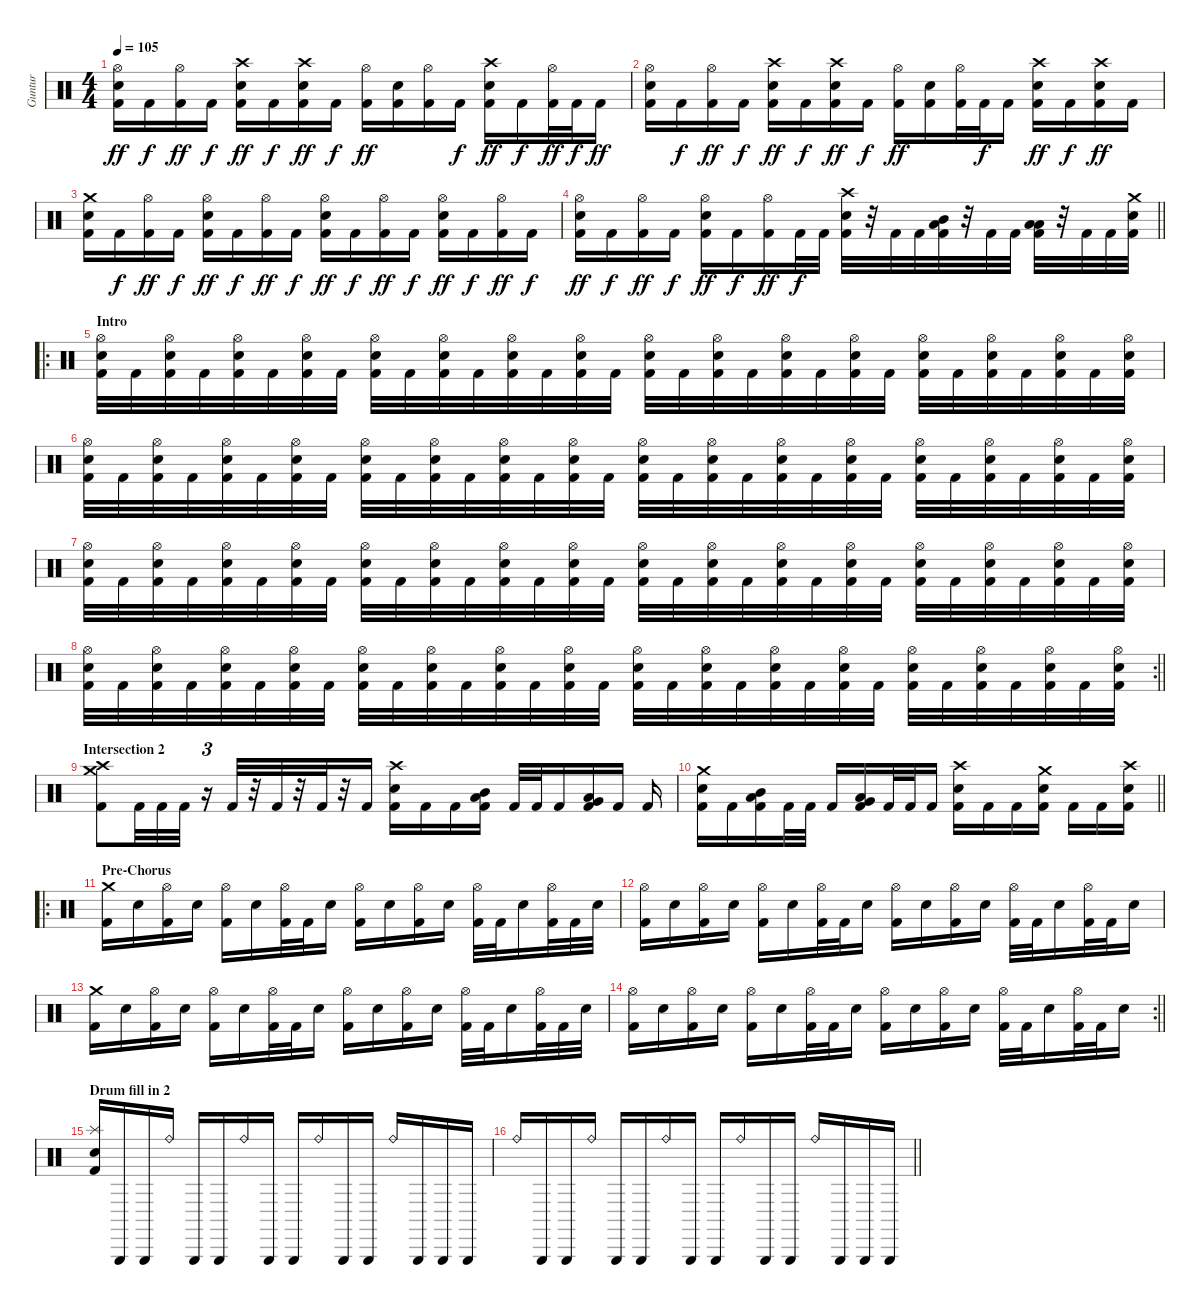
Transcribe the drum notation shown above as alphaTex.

\track ("Guntur" "Guntur") {instrument percussion}
\staff {score}
\articulation defaults
\ts (4 4)
\tempo 105
\clef neutral
\ks c
("Hi-Hat (open)" "Electric Snare (hit)" "Kick (hit) 2").16{dy ff} "Kick (hit) 2".16{dy f} ("Hi-Hat (open)" "Kick (hit) 2").16{dy ff} "Kick (hit) 2".16{dy f} ("Crash high (hit)" "Electric Snare (hit)" "Kick (hit) 2").16{dy ff} "Kick (hit) 2".16{dy f} ("Crash high (hit)" "Electric Snare (hit)" "Kick (hit) 2").16{dy ff} "Kick (hit) 2".16{dy f} ("Hi-Hat (open)" "Kick (hit) 2").16{dy ff} ("Electric Snare (hit)" "Kick (hit) 2").16 ("Hi-Hat (open)" "Kick (hit) 2").16 "Kick (hit) 2".16{dy f} ("Crash high (hit)" "Electric Snare (hit)" "Kick (hit) 2").16{dy ff} "Kick (hit) 2".16{dy f} ("Hi-Hat (open)" "Kick (hit) 2").32{dy ff} "Kick (hit) 2".32{dy f} "Kick (hit) 2".16{dy ff} |
("Hi-Hat (open)" "Electric Snare (hit)" "Kick (hit) 2").16 "Kick (hit) 2".16{dy f} ("Hi-Hat (open)" "Kick (hit) 2").16{dy ff} "Kick (hit) 2".16{dy f} ("Crash high (hit)" "Electric Snare (hit)" "Kick (hit) 2").16{dy ff} "Kick (hit) 2".16{dy f} ("Crash high (hit)" "Electric Snare (hit)" "Kick (hit) 2").16{dy ff} "Kick (hit) 2".16{dy f} ("Hi-Hat (open)" "Kick (hit) 2").16{dy ff} ("Electric Snare (hit)" "Kick (hit) 2").16 ("Hi-Hat (open)" "Kick (hit) 2").32 "Kick (hit) 2".32{dy f} "Kick (hit) 2".16 ("Crash high (hit)" "Electric Snare (hit)" "Kick (hit) 2").16{dy ff} "Kick (hit) 2".16{dy f} ("Crash high (hit)" "Electric Snare (hit)" "Kick (hit) 2").16{dy ff} "Kick (hit) 2".16 |
("Crash medium (hit)" "Electric Snare (hit)" "Kick (hit) 2").16 "Kick (hit) 2".16{dy f} ("Hi-Hat (open)" "Kick (hit) 2").16{dy ff} "Kick (hit) 2".16{dy f} ("Hi-Hat (open)" "Electric Snare (hit)" "Kick (hit) 2").16{dy ff} "Kick (hit) 2".16{dy f} ("Hi-Hat (open)" "Kick (hit) 2").16{dy ff} "Kick (hit) 2".16{dy f} ("Hi-Hat (open)" "Electric Snare (hit)" "Kick (hit) 2").16{dy ff} "Kick (hit) 2".16{dy f} ("Hi-Hat (open)" "Kick (hit) 2").16{dy ff} "Kick (hit) 2".16{dy f} ("Hi-Hat (open)" "Electric Snare (hit)" "Kick (hit) 2").16{dy ff} "Kick (hit) 2".16{dy f} ("Hi-Hat (open)" "Kick (hit) 2").16{dy ff} "Kick (hit) 2".16{dy f} |
\barLineRight lightlight
("Hi-Hat (open)" "Electric Snare (hit)" "Kick (hit) 2").16{dy ff} "Kick (hit) 2".16{dy f} ("Hi-Hat (open)" "Kick (hit) 2").16{dy ff} "Kick (hit) 2".16{dy f} ("Hi-Hat (open)" "Electric Snare (hit)" "Kick (hit) 2").16{dy ff} "Kick (hit) 2".16{dy f} ("Hi-Hat (open)" "Kick (hit) 2").16{dy ff} "Kick (hit) 2".32{dy f} "Kick (hit) 2".32 ("Crash high (hit)" "Electric Snare (hit)" "Kick (hit) 2").32 r.32 "Kick (hit) 2".32 "Kick (hit) 2".32 ("Mid Tom (hit)" "Low Tom (hit)" "Kick (hit) 2").32 r.32 "Kick (hit) 2".32 "Kick (hit) 2".32 ("Low Tom (hit)" "Low Floor Tom (hit)" "Kick (hit) 2").32 r.32 "Kick (hit) 2".32 "Kick (hit) 2".32 ("Crash medium (hit)" "Electric Snare (hit)" "Kick (hit) 2").32 |
\ro
\section ("" "Intro")
("Hi-Hat (open)" "Electric Snare (hit)" "Kick (hit) 2").32 "Kick (hit) 2".32 ("Hi-Hat (open)" "Electric Snare (hit)" "Kick (hit) 2").32 "Kick (hit) 2".32 ("Hi-Hat (open)" "Electric Snare (hit)" "Kick (hit) 2").32 "Kick (hit) 2".32 ("Hi-Hat (open)" "Electric Snare (hit)" "Kick (hit) 2").32 "Kick (hit) 2".32 ("Hi-Hat (open)" "Electric Snare (hit)" "Kick (hit) 2").32 "Kick (hit) 2".32 ("Hi-Hat (open)" "Electric Snare (hit)" "Kick (hit) 2").32 "Kick (hit) 2".32 ("Hi-Hat (open)" "Electric Snare (hit)" "Kick (hit) 2").32 "Kick (hit) 2".32 ("Hi-Hat (open)" "Electric Snare (hit)" "Kick (hit) 2").32 "Kick (hit) 2".32 ("Hi-Hat (open)" "Electric Snare (hit)" "Kick (hit) 2").32 "Kick (hit) 2".32 ("Hi-Hat (open)" "Electric Snare (hit)" "Kick (hit) 2").32 "Kick (hit) 2".32 ("Hi-Hat (open)" "Electric Snare (hit)" "Kick (hit) 2").32 "Kick (hit) 2".32 ("Hi-Hat (open)" "Electric Snare (hit)" "Kick (hit) 2").32 "Kick (hit) 2".32 ("Hi-Hat (open)" "Electric Snare (hit)" "Kick (hit) 2").32 "Kick (hit) 2".32 ("Hi-Hat (open)" "Electric Snare (hit)" "Kick (hit) 2").32 "Kick (hit) 2".32 ("Hi-Hat (open)" "Electric Snare (hit)" "Kick (hit) 2").32 "Kick (hit) 2".32 ("Hi-Hat (open)" "Electric Snare (hit)" "Kick (hit) 2").32 |
("Hi-Hat (open)" "Electric Snare (hit)" "Kick (hit) 2").32 "Kick (hit) 2".32 ("Hi-Hat (open)" "Electric Snare (hit)" "Kick (hit) 2").32 "Kick (hit) 2".32 ("Hi-Hat (open)" "Electric Snare (hit)" "Kick (hit) 2").32 "Kick (hit) 2".32 ("Hi-Hat (open)" "Electric Snare (hit)" "Kick (hit) 2").32 "Kick (hit) 2".32 ("Hi-Hat (open)" "Electric Snare (hit)" "Kick (hit) 2").32 "Kick (hit) 2".32 ("Hi-Hat (open)" "Electric Snare (hit)" "Kick (hit) 2").32 "Kick (hit) 2".32 ("Hi-Hat (open)" "Electric Snare (hit)" "Kick (hit) 2").32 "Kick (hit) 2".32 ("Hi-Hat (open)" "Electric Snare (hit)" "Kick (hit) 2").32 "Kick (hit) 2".32 ("Hi-Hat (open)" "Electric Snare (hit)" "Kick (hit) 2").32 "Kick (hit) 2".32 ("Hi-Hat (open)" "Electric Snare (hit)" "Kick (hit) 2").32 "Kick (hit) 2".32 ("Hi-Hat (open)" "Electric Snare (hit)" "Kick (hit) 2").32 "Kick (hit) 2".32 ("Hi-Hat (open)" "Electric Snare (hit)" "Kick (hit) 2").32 "Kick (hit) 2".32 ("Hi-Hat (open)" "Electric Snare (hit)" "Kick (hit) 2").32 "Kick (hit) 2".32 ("Hi-Hat (open)" "Electric Snare (hit)" "Kick (hit) 2").32 "Kick (hit) 2".32 ("Hi-Hat (open)" "Electric Snare (hit)" "Kick (hit) 2").32 "Kick (hit) 2".32 ("Hi-Hat (open)" "Electric Snare (hit)" "Kick (hit) 2").32 |
("Hi-Hat (open)" "Electric Snare (hit)" "Kick (hit) 2").32 "Kick (hit) 2".32 ("Hi-Hat (open)" "Electric Snare (hit)" "Kick (hit) 2").32 "Kick (hit) 2".32 ("Hi-Hat (open)" "Electric Snare (hit)" "Kick (hit) 2").32 "Kick (hit) 2".32 ("Hi-Hat (open)" "Electric Snare (hit)" "Kick (hit) 2").32 "Kick (hit) 2".32 ("Hi-Hat (open)" "Electric Snare (hit)" "Kick (hit) 2").32 "Kick (hit) 2".32 ("Hi-Hat (open)" "Electric Snare (hit)" "Kick (hit) 2").32 "Kick (hit) 2".32 ("Hi-Hat (open)" "Electric Snare (hit)" "Kick (hit) 2").32 "Kick (hit) 2".32 ("Hi-Hat (open)" "Electric Snare (hit)" "Kick (hit) 2").32 "Kick (hit) 2".32 ("Hi-Hat (open)" "Electric Snare (hit)" "Kick (hit) 2").32 "Kick (hit) 2".32 ("Hi-Hat (open)" "Electric Snare (hit)" "Kick (hit) 2").32 "Kick (hit) 2".32 ("Hi-Hat (open)" "Electric Snare (hit)" "Kick (hit) 2").32 "Kick (hit) 2".32 ("Hi-Hat (open)" "Electric Snare (hit)" "Kick (hit) 2").32 "Kick (hit) 2".32 ("Hi-Hat (open)" "Electric Snare (hit)" "Kick (hit) 2").32 "Kick (hit) 2".32 ("Hi-Hat (open)" "Electric Snare (hit)" "Kick (hit) 2").32 "Kick (hit) 2".32 ("Hi-Hat (open)" "Electric Snare (hit)" "Kick (hit) 2").32 "Kick (hit) 2".32 ("Hi-Hat (open)" "Electric Snare (hit)" "Kick (hit) 2").32 |
\rc 2
\barLineRight lightlight
("Hi-Hat (open)" "Electric Snare (hit)" "Kick (hit) 2").32 "Kick (hit) 2".32 ("Hi-Hat (open)" "Electric Snare (hit)" "Kick (hit) 2").32 "Kick (hit) 2".32 ("Hi-Hat (open)" "Electric Snare (hit)" "Kick (hit) 2").32 "Kick (hit) 2".32 ("Hi-Hat (open)" "Electric Snare (hit)" "Kick (hit) 2").32 "Kick (hit) 2".32 ("Hi-Hat (open)" "Electric Snare (hit)" "Kick (hit) 2").32 "Kick (hit) 2".32 ("Hi-Hat (open)" "Electric Snare (hit)" "Kick (hit) 2").32 "Kick (hit) 2".32 ("Hi-Hat (open)" "Electric Snare (hit)" "Kick (hit) 2").32 "Kick (hit) 2".32 ("Hi-Hat (open)" "Electric Snare (hit)" "Kick (hit) 2").32 "Kick (hit) 2".32 ("Hi-Hat (open)" "Electric Snare (hit)" "Kick (hit) 2").32 "Kick (hit) 2".32 ("Hi-Hat (open)" "Electric Snare (hit)" "Kick (hit) 2").32 "Kick (hit) 2".32 ("Hi-Hat (open)" "Electric Snare (hit)" "Kick (hit) 2").32 "Kick (hit) 2".32 ("Hi-Hat (open)" "Electric Snare (hit)" "Kick (hit) 2").32 "Kick (hit) 2".32 ("Hi-Hat (open)" "Electric Snare (hit)" "Kick (hit) 2").32 "Kick (hit) 2".32 ("Hi-Hat (open)" "Electric Snare (hit)" "Kick (hit) 2").32 "Kick (hit) 2".32 ("Hi-Hat (open)" "Electric Snare (hit)" "Kick (hit) 2").32 "Kick (hit) 2".32 ("Hi-Hat (open)" "Electric Snare (hit)" "Kick (hit) 2").32 |
\section ("" "Intersection 2")
("Crash high (hit)" "Crash medium (hit)" "Kick (hit) 2").8 "Kick (hit) 2".32 "Kick (hit) 2".32 "Kick (hit) 2".32 r.16{tu (3 2)} "Kick (hit) 2".32 r.32 "Kick (hit) 2".32 r.32 "Kick (hit) 2".32 r.32 "Kick (hit) 2".16 ("Crash high (hit)" "Electric Snare (hit)" "Kick (hit) 2").16 "Kick (hit) 2".16 "Kick (hit) 2".16 ("Low Tom (hit)" "Mid Tom (hit)" "Kick (hit) 2").16 "Kick (hit) 2".32 "Kick (hit) 2".32 "Kick (hit) 2".16 ("Low Floor Tom (hit)" "Very Low Tom (hit)" "Kick (hit) 2").16 "Kick (hit) 2".16 "Kick (hit) 2".16 |
\barLineRight lightlight
("Crash medium (hit)" "Electric Snare (hit)" "Kick (hit) 2").16 "Kick (hit) 2".16 ("Low Tom (hit)" "Mid Tom (hit)" "Kick (hit) 2").16 "Kick (hit) 2".32 "Kick (hit) 2".32 "Kick (hit) 2".16 ("Low Floor Tom (hit)" "Very Low Tom (hit)" "Kick (hit) 2").16 "Kick (hit) 2".32 "Kick (hit) 2".32 "Kick (hit) 2".16 ("Crash high (hit)" "Electric Snare (hit)" "Kick (hit) 2").16 "Kick (hit) 2".16 "Kick (hit) 2".16 ("Crash medium (hit)" "Electric Snare (hit)" "Kick (hit) 2").16 "Kick (hit) 2".16 "Kick (hit) 2".16 ("Crash high (hit)" "Electric Snare (hit)" "Kick (hit) 2").16 |
\ro
\section ("" "Pre-Chorus")
("Crash medium (hit)" "Kick (hit) 2").16 "Electric Snare (hit)".16 ("Hi-Hat (open)" "Kick (hit) 2").16 "Electric Snare (hit)".16 ("Hi-Hat (open)" "Kick (hit) 2").16 "Electric Snare (hit)".16 ("Hi-Hat (open)" "Kick (hit) 2").32 "Kick (hit) 2".32 "Electric Snare (hit)".16 ("Hi-Hat (open)" "Kick (hit) 2").16 "Electric Snare (hit)".16 ("Hi-Hat (open)" "Kick (hit) 2").16 "Electric Snare (hit)".16 ("Hi-Hat (open)" "Kick (hit) 2").32 "Kick (hit) 2".32 "Electric Snare (hit)".16 ("Hi-Hat (open)" "Kick (hit) 2").32 "Kick (hit) 2".32 "Electric Snare (hit)".32 |
("Hi-Hat (open)" "Kick (hit) 2").16 "Electric Snare (hit)".16 ("Hi-Hat (open)" "Kick (hit) 2").16 "Electric Snare (hit)".16 ("Hi-Hat (open)" "Kick (hit) 2").16 "Electric Snare (hit)".16 ("Hi-Hat (open)" "Kick (hit) 2").32 "Kick (hit) 2".32 "Electric Snare (hit)".16 ("Hi-Hat (open)" "Kick (hit) 2").16 "Electric Snare (hit)".16 ("Hi-Hat (open)" "Kick (hit) 2").16 "Electric Snare (hit)".16 ("Hi-Hat (open)" "Kick (hit) 2").32 "Kick (hit) 2".32 "Electric Snare (hit)".16 ("Hi-Hat (open)" "Kick (hit) 2").32 "Kick (hit) 2".32 "Electric Snare (hit)".16 |
("Crash medium (hit)" "Kick (hit) 2").16 "Electric Snare (hit)".16 ("Hi-Hat (open)" "Kick (hit) 2").16 "Electric Snare (hit)".16 ("Hi-Hat (open)" "Kick (hit) 2").16 "Electric Snare (hit)".16 ("Hi-Hat (open)" "Kick (hit) 2").32 "Kick (hit) 2".32 "Electric Snare (hit)".16 ("Hi-Hat (open)" "Kick (hit) 2").16 "Electric Snare (hit)".16 ("Hi-Hat (open)" "Kick (hit) 2").16 "Electric Snare (hit)".16 ("Hi-Hat (open)" "Kick (hit) 2").32 "Kick (hit) 2".32 "Electric Snare (hit)".16 ("Hi-Hat (open)" "Kick (hit) 2").32 "Kick (hit) 2".32 "Electric Snare (hit)".32 |
\rc 2
\barLineRight lightlight
("Hi-Hat (open)" "Kick (hit) 2").16 "Electric Snare (hit)".16 ("Hi-Hat (open)" "Kick (hit) 2").16 "Electric Snare (hit)".16 ("Hi-Hat (open)" "Kick (hit) 2").16 "Electric Snare (hit)".16 ("Hi-Hat (open)" "Kick (hit) 2").32 "Kick (hit) 2".32 "Electric Snare (hit)".16 ("Hi-Hat (open)" "Kick (hit) 2").16 "Electric Snare (hit)".16 ("Hi-Hat (open)" "Kick (hit) 2").16 "Electric Snare (hit)".16 ("Hi-Hat (open)" "Kick (hit) 2").32 "Kick (hit) 2".32 "Electric Snare (hit)".16 ("Hi-Hat (open)" "Kick (hit) 2").32 "Kick (hit) 2".32 "Electric Snare (hit)".16 |
\section ("" "Drum fill in 2")
("Splash (hit)" "Electric Snare (hit)" "Kick (hit) 2").16 "Triangle (hit)".16 "Triangle (hit)".16 "Ride (bell)".16 "Triangle (hit)".16 "Triangle (hit)".16 "Ride (bell)".16 "Triangle (hit)".16 "Triangle (hit)".16 "Ride (bell)".16 "Triangle (hit)".16 "Triangle (hit)".16 "Ride (bell)".16 "Triangle (hit)".16 "Triangle (hit)".16 "Triangle (hit)".16 |
\barLineRight lightlight "Ride (bell)".16 "Triangle (hit)".16 "Triangle (hit)".16 "Ride (bell)".16 "Triangle (hit)".16 "Triangle (hit)".16 "Ride (bell)".16 "Triangle (hit)".16 "Triangle (hit)".16 "Ride (bell)".16 "Triangle (hit)".16 "Triangle (hit)".16 "Ride (bell)".16 "Triangle (hit)".16 "Triangle (hit)".16 "Triangle (hit)".16
